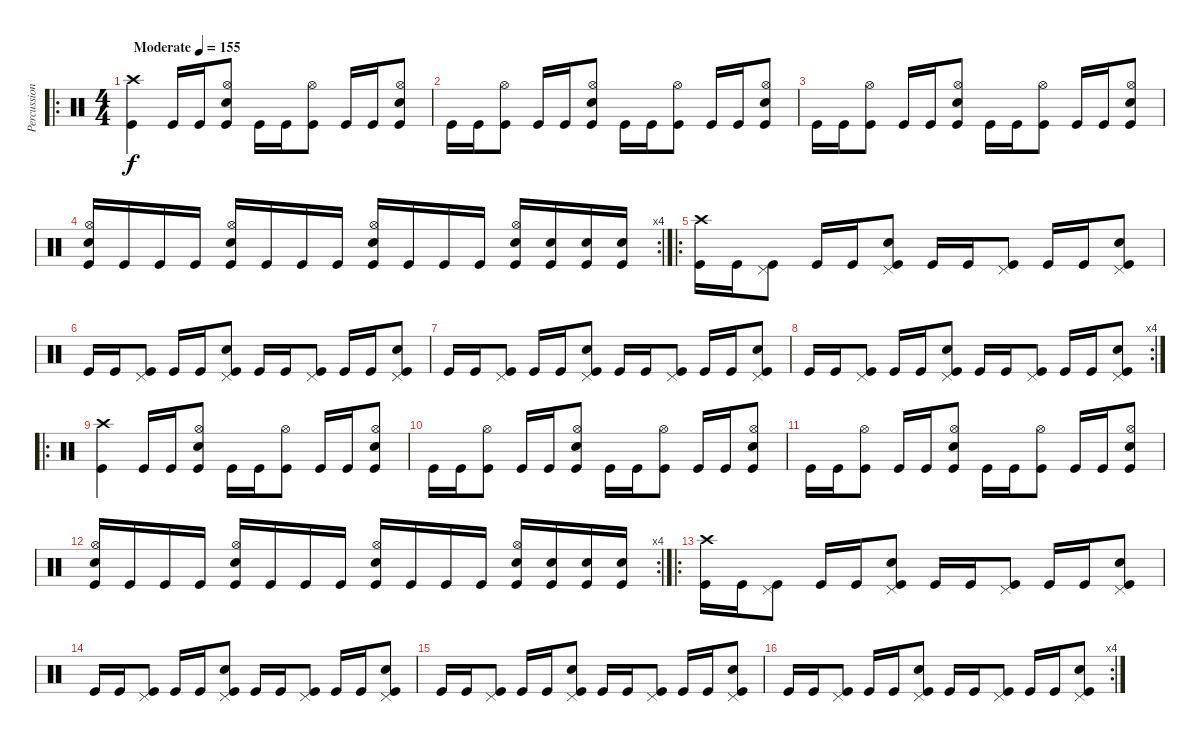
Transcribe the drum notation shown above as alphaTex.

\track ("Percussion" "Percussion") {instrument percussion}
\staff {score}
\articulation defaults
\ro
\ts (4 4)
\tempo (155 "Moderate")
\clef neutral
\ks c
("Crash high (hit)" "Kick (hit)").4{dy f} "Kick (hit)".16 "Kick (hit)".16 ("Hi-Hat (open)" "Electric Snare (hit)" "Kick (hit)").8 "Kick (hit)".16 "Kick (hit)".16 ("Hi-Hat (open)" "Kick (hit)").8 "Kick (hit)".16 "Kick (hit)".16 ("Hi-Hat (open)" "Electric Snare (hit)" "Kick (hit)").8 |
"Kick (hit)".16 "Kick (hit)".16 ("Hi-Hat (open)" "Kick (hit)").8 "Kick (hit)".16 "Kick (hit)".16 ("Hi-Hat (open)" "Electric Snare (hit)" "Kick (hit)").8 "Kick (hit)".16 "Kick (hit)".16 ("Hi-Hat (open)" "Kick (hit)").8 "Kick (hit)".16 "Kick (hit)".16 ("Hi-Hat (open)" "Electric Snare (hit)" "Kick (hit)").8 |
"Kick (hit)".16 "Kick (hit)".16 ("Hi-Hat (open)" "Kick (hit)").8 "Kick (hit)".16 "Kick (hit)".16 ("Hi-Hat (open)" "Electric Snare (hit)" "Kick (hit)").8 "Kick (hit)".16 "Kick (hit)".16 ("Hi-Hat (open)" "Kick (hit)").8 "Kick (hit)".16 "Kick (hit)".16 ("Hi-Hat (open)" "Electric Snare (hit)" "Kick (hit)").8 |
\rc 4
("Hi-Hat (open)" "Electric Snare (hit)" "Kick (hit)").16 "Kick (hit)".16 "Kick (hit)".16 "Kick (hit)".16 ("Hi-Hat (open)" "Electric Snare (hit)" "Kick (hit)").16 "Kick (hit)".16 "Kick (hit)".16 "Kick (hit)".16 ("Hi-Hat (open)" "Electric Snare (hit)" "Kick (hit)").16 "Kick (hit)".16 "Kick (hit)".16 "Kick (hit)".16 ("Hi-Hat (open)" "Electric Snare (hit)" "Kick (hit)").16 ("Electric Snare (hit)" "Kick (hit)").16 ("Electric Snare (hit)" "Kick (hit)").16 ("Electric Snare (hit)" "Kick (hit)").16 |
\ro
("Crash high (hit)" "Kick (hit)").16 "Kick (hit)".16 ("Pedal Hi-Hat (hit)" "Kick (hit)").8 "Kick (hit)".16 "Kick (hit)".16 ("Pedal Hi-Hat (hit)" "Electric Snare (hit)" "Kick (hit)").8 "Kick (hit)".16 "Kick (hit)".16 ("Pedal Hi-Hat (hit)" "Kick (hit)").8 "Kick (hit)".16 "Kick (hit)".16 ("Pedal Hi-Hat (hit)" "Electric Snare (hit)" "Kick (hit)").8 |
"Kick (hit)".16 "Kick (hit)".16 ("Pedal Hi-Hat (hit)" "Kick (hit)").8 "Kick (hit)".16 "Kick (hit)".16 ("Pedal Hi-Hat (hit)" "Electric Snare (hit)" "Kick (hit)").8 "Kick (hit)".16 "Kick (hit)".16 ("Pedal Hi-Hat (hit)" "Kick (hit)").8 "Kick (hit)".16 "Kick (hit)".16 ("Pedal Hi-Hat (hit)" "Electric Snare (hit)" "Kick (hit)").8 |
"Kick (hit)".16 "Kick (hit)".16 ("Pedal Hi-Hat (hit)" "Kick (hit)").8 "Kick (hit)".16 "Kick (hit)".16 ("Pedal Hi-Hat (hit)" "Electric Snare (hit)" "Kick (hit)").8 "Kick (hit)".16 "Kick (hit)".16 ("Pedal Hi-Hat (hit)" "Kick (hit)").8 "Kick (hit)".16 "Kick (hit)".16 ("Pedal Hi-Hat (hit)" "Electric Snare (hit)" "Kick (hit)").8 |
\rc 4 "Kick (hit)".16 "Kick (hit)".16
("Pedal Hi-Hat (hit)" "Kick (hit)").8 "Kick (hit)".16 "Kick (hit)".16 ("Pedal Hi-Hat (hit)" "Electric Snare (hit)" "Kick (hit)").8 "Kick (hit)".16 "Kick (hit)".16 ("Pedal Hi-Hat (hit)" "Kick (hit)").8 "Kick (hit)".16 "Kick (hit)".16 ("Pedal Hi-Hat (hit)" "Electric Snare (hit)" "Kick (hit)").8 |
\ro
("Crash high (hit)" "Kick (hit)").4 "Kick (hit)".16 "Kick (hit)".16 ("Hi-Hat (open)" "Electric Snare (hit)" "Kick (hit)").8 "Kick (hit)".16 "Kick (hit)".16 ("Hi-Hat (open)" "Kick (hit)").8 "Kick (hit)".16 "Kick (hit)".16 ("Hi-Hat (open)" "Electric Snare (hit)" "Kick (hit)").8 |
"Kick (hit)".16 "Kick (hit)".16 ("Hi-Hat (open)" "Kick (hit)").8 "Kick (hit)".16 "Kick (hit)".16 ("Hi-Hat (open)" "Electric Snare (hit)" "Kick (hit)").8 "Kick (hit)".16 "Kick (hit)".16 ("Hi-Hat (open)" "Kick (hit)").8 "Kick (hit)".16 "Kick (hit)".16 ("Hi-Hat (open)" "Electric Snare (hit)" "Kick (hit)").8 |
"Kick (hit)".16 "Kick (hit)".16 ("Hi-Hat (open)" "Kick (hit)").8 "Kick (hit)".16 "Kick (hit)".16 ("Hi-Hat (open)" "Electric Snare (hit)" "Kick (hit)").8 "Kick (hit)".16 "Kick (hit)".16 ("Hi-Hat (open)" "Kick (hit)").8 "Kick (hit)".16 "Kick (hit)".16 ("Hi-Hat (open)" "Electric Snare (hit)" "Kick (hit)").8 |
\rc 4
("Hi-Hat (open)" "Electric Snare (hit)" "Kick (hit)").16 "Kick (hit)".16 "Kick (hit)".16 "Kick (hit)".16 ("Hi-Hat (open)" "Electric Snare (hit)" "Kick (hit)").16 "Kick (hit)".16 "Kick (hit)".16 "Kick (hit)".16 ("Hi-Hat (open)" "Electric Snare (hit)" "Kick (hit)").16 "Kick (hit)".16 "Kick (hit)".16 "Kick (hit)".16 ("Hi-Hat (open)" "Electric Snare (hit)" "Kick (hit)").16 ("Electric Snare (hit)" "Kick (hit)").16 ("Electric Snare (hit)" "Kick (hit)").16 ("Electric Snare (hit)" "Kick (hit)").16 |
\ro
("Crash high (hit)" "Kick (hit)").16 "Kick (hit)".16 ("Pedal Hi-Hat (hit)" "Kick (hit)").8 "Kick (hit)".16 "Kick (hit)".16 ("Pedal Hi-Hat (hit)" "Electric Snare (hit)" "Kick (hit)").8 "Kick (hit)".16 "Kick (hit)".16 ("Pedal Hi-Hat (hit)" "Kick (hit)").8 "Kick (hit)".16 "Kick (hit)".16 ("Pedal Hi-Hat (hit)" "Electric Snare (hit)" "Kick (hit)").8 |
"Kick (hit)".16 "Kick (hit)".16 ("Pedal Hi-Hat (hit)" "Kick (hit)").8 "Kick (hit)".16 "Kick (hit)".16 ("Pedal Hi-Hat (hit)" "Electric Snare (hit)" "Kick (hit)").8 "Kick (hit)".16 "Kick (hit)".16 ("Pedal Hi-Hat (hit)" "Kick (hit)").8 "Kick (hit)".16 "Kick (hit)".16 ("Pedal Hi-Hat (hit)" "Electric Snare (hit)" "Kick (hit)").8 |
"Kick (hit)".16 "Kick (hit)".16 ("Pedal Hi-Hat (hit)" "Kick (hit)").8 "Kick (hit)".16 "Kick (hit)".16 ("Pedal Hi-Hat (hit)" "Electric Snare (hit)" "Kick (hit)").8 "Kick (hit)".16 "Kick (hit)".16 ("Pedal Hi-Hat (hit)" "Kick (hit)").8 "Kick (hit)".16 "Kick (hit)".16 ("Pedal Hi-Hat (hit)" "Electric Snare (hit)" "Kick (hit)").8 |
\rc 4 "Kick (hit)".16 "Kick (hit)".16
("Pedal Hi-Hat (hit)" "Kick (hit)").8 "Kick (hit)".16 "Kick (hit)".16 ("Pedal Hi-Hat (hit)" "Electric Snare (hit)" "Kick (hit)").8 "Kick (hit)".16 "Kick (hit)".16 ("Pedal Hi-Hat (hit)" "Kick (hit)").8 "Kick (hit)".16 "Kick (hit)".16 ("Pedal Hi-Hat (hit)" "Electric Snare (hit)" "Kick (hit)").8
